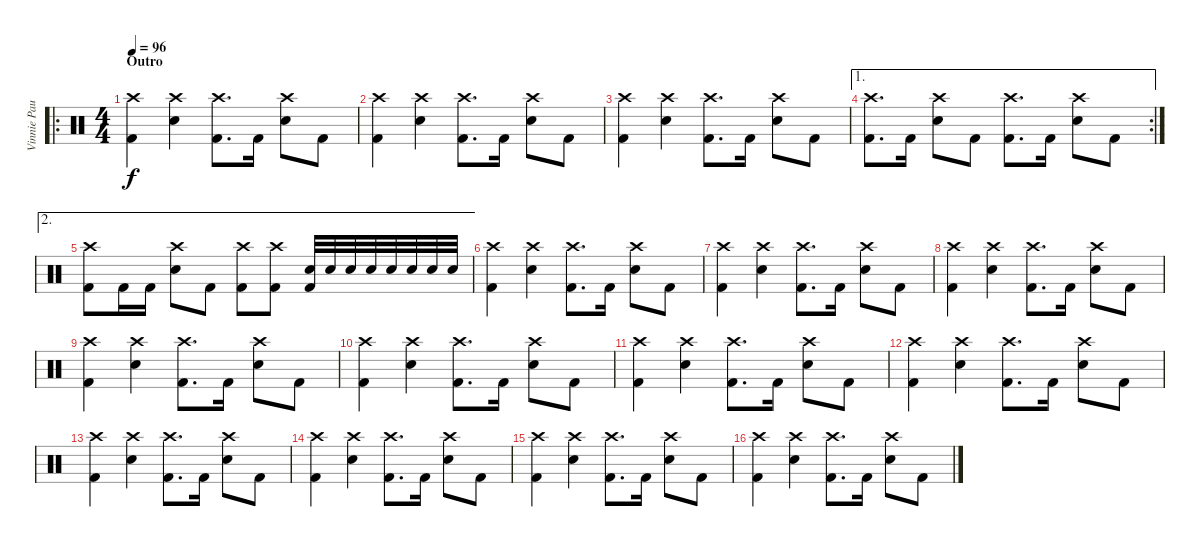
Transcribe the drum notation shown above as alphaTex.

\track ("Vinnie Paul" "Vinnie Pau") {instrument percussion}
\staff {score}
\articulation defaults
\ro
\ts (4 4)
\section ("" "Outro")
\tempo 96
\clef neutral
\ks c
("Crash high (hit)" "Kick (hit) 2").4{dy f} ("Crash high (hit)" "Snare (hit) 2").4 ("Crash high (hit)" "Kick (hit) 2").8{d} "Kick (hit) 2".16 ("Crash high (hit)" "Snare (hit) 2").8 "Kick (hit) 2".8 |
("Crash high (hit)" "Kick (hit) 2").4 ("Crash high (hit)" "Snare (hit) 2").4 ("Crash high (hit)" "Kick (hit) 2").8{d} "Kick (hit) 2".16 ("Crash high (hit)" "Snare (hit) 2").8 "Kick (hit) 2".8 |
("Crash high (hit)" "Kick (hit) 2").4 ("Crash high (hit)" "Snare (hit) 2").4 ("Crash high (hit)" "Kick (hit) 2").8{d} "Kick (hit) 2".16 ("Crash high (hit)" "Snare (hit) 2").8 "Kick (hit) 2".8 |
\ae 1
\rc 2
("Crash high (hit)" "Kick (hit) 2").8{d} "Kick (hit) 2".16 ("Crash high (hit)" "Snare (hit) 2").8 "Kick (hit) 2".8 ("Crash high (hit)" "Kick (hit) 2").8{d} "Kick (hit) 2".16 ("Crash high (hit)" "Snare (hit) 2").8 "Kick (hit) 2".8 |
\ae 2
("Crash high (hit)" "Kick (hit) 2").8 "Kick (hit) 2".16 "Kick (hit) 2".16 ("Crash high (hit)" "Snare (hit) 2").8 "Kick (hit) 2".8 ("Crash high (hit)" "Kick (hit) 2").8 ("Crash high (hit)" "Kick (hit) 2").8 ("Snare (hit) 2" "Kick (hit) 2").32 "Snare (hit) 2".32 "Snare (hit) 2".32 "Snare (hit) 2".32 "Snare (hit) 2".32 "Snare (hit) 2".32 "Snare (hit) 2".32 "Snare (hit) 2".32 |
("Crash high (hit)" "Kick (hit) 2").4 ("Crash high (hit)" "Snare (hit) 2").4 ("Crash high (hit)" "Kick (hit) 2").8{d} "Kick (hit) 2".16 ("Crash high (hit)" "Snare (hit) 2").8 "Kick (hit) 2".8 |
("Crash high (hit)" "Kick (hit) 2").4 ("Crash high (hit)" "Snare (hit) 2").4 ("Crash high (hit)" "Kick (hit) 2").8{d} "Kick (hit) 2".16 ("Crash high (hit)" "Snare (hit) 2").8 "Kick (hit) 2".8 |
("Crash high (hit)" "Kick (hit) 2").4 ("Crash high (hit)" "Snare (hit) 2").4 ("Crash high (hit)" "Kick (hit) 2").8{d} "Kick (hit) 2".16 ("Crash high (hit)" "Snare (hit) 2").8 "Kick (hit) 2".8 |
("Crash high (hit)" "Kick (hit) 2").4 ("Crash high (hit)" "Snare (hit) 2").4 ("Crash high (hit)" "Kick (hit) 2").8{d} "Kick (hit) 2".16 ("Crash high (hit)" "Snare (hit) 2").8 "Kick (hit) 2".8 |
("Crash high (hit)" "Kick (hit) 2").4 ("Crash high (hit)" "Snare (hit) 2").4 ("Crash high (hit)" "Kick (hit) 2").8{d} "Kick (hit) 2".16 ("Crash high (hit)" "Snare (hit) 2").8 "Kick (hit) 2".8 |
("Crash high (hit)" "Kick (hit) 2").4 ("Crash high (hit)" "Snare (hit) 2").4 ("Crash high (hit)" "Kick (hit) 2").8{d} "Kick (hit) 2".16 ("Crash high (hit)" "Snare (hit) 2").8 "Kick (hit) 2".8 |
("Crash high (hit)" "Kick (hit) 2").4 ("Crash high (hit)" "Snare (hit) 2").4 ("Crash high (hit)" "Kick (hit) 2").8{d} "Kick (hit) 2".16 ("Crash high (hit)" "Snare (hit) 2").8 "Kick (hit) 2".8 |
("Crash high (hit)" "Kick (hit) 2").4 ("Crash high (hit)" "Snare (hit) 2").4 ("Crash high (hit)" "Kick (hit) 2").8{d} "Kick (hit) 2".16 ("Crash high (hit)" "Snare (hit) 2").8 "Kick (hit) 2".8 |
("Crash high (hit)" "Kick (hit) 2").4 ("Crash high (hit)" "Snare (hit) 2").4 ("Crash high (hit)" "Kick (hit) 2").8{d} "Kick (hit) 2".16 ("Crash high (hit)" "Snare (hit) 2").8 "Kick (hit) 2".8 |
("Crash high (hit)" "Kick (hit) 2").4 ("Crash high (hit)" "Snare (hit) 2").4 ("Crash high (hit)" "Kick (hit) 2").8{d} "Kick (hit) 2".16 ("Crash high (hit)" "Snare (hit) 2").8 "Kick (hit) 2".8 |
("Crash high (hit)" "Kick (hit) 2").4 ("Crash high (hit)" "Snare (hit) 2").4 ("Crash high (hit)" "Kick (hit) 2").8{d} "Kick (hit) 2".16 ("Crash high (hit)" "Snare (hit) 2").8 "Kick (hit) 2".8
